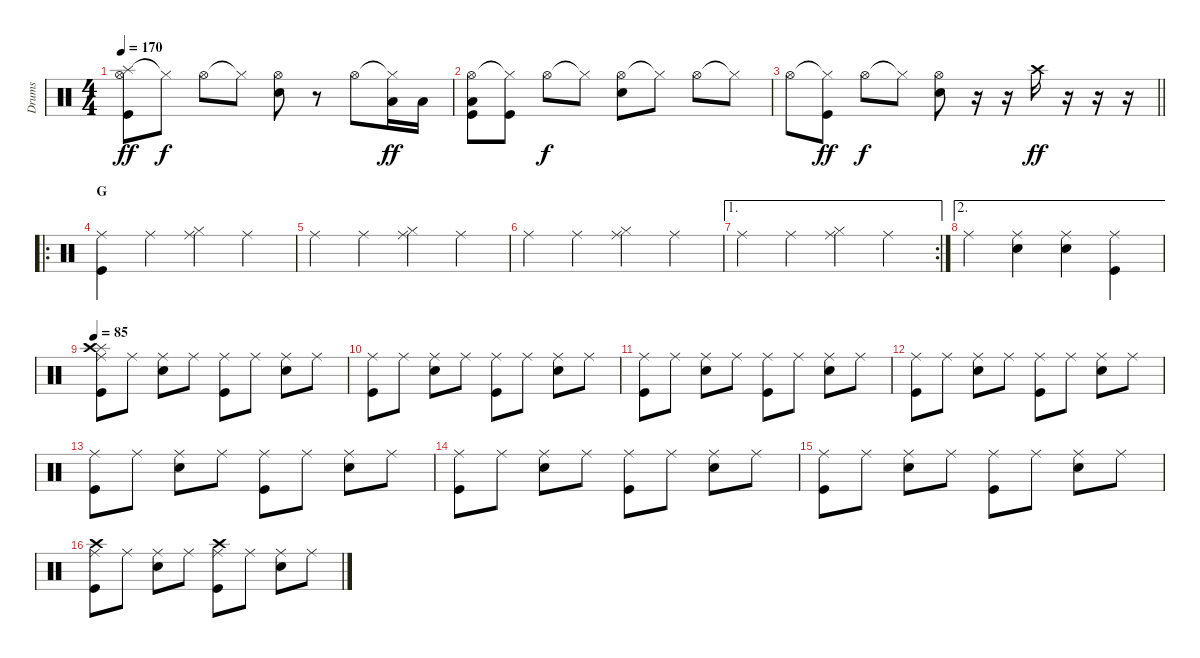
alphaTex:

\track ("Drums" "Drums") {instrument percussion}
\staff {score}
\articulation defaults
\ts (4 4)
\tempo 170
\clef neutral
\ks c
("Splash (hit)" "Hi-Hat (open)" "Kick (hit)").8{dy ff} "Hi-Hat (closed)"{t}.8{dy f} "Hi-Hat (open)".8 "Hi-Hat (closed)"{t}.8 ("Hi-Hat (open)" "Snare (hit) 2").8 r.8 "Hi-Hat (open)".8 ("Hi-Hat (closed)"{t} "Low Tom (hit)").16{dy ff} "Low Tom (hit)".16 |
("Hi-Hat (open)" "Low Tom (hit)" "Kick (hit)").8 ("Hi-Hat (closed)"{t} "Kick (hit)").8 "Hi-Hat (open)".8{dy f} "Hi-Hat (closed)"{t}.8 ("Hi-Hat (open)" "Snare (hit) 2").8 "Hi-Hat (closed)"{t}.8 "Hi-Hat (open)".8 "Hi-Hat (closed)"{t}.8 |
\barLineRight lightlight "Hi-Hat (open)".8
("Hi-Hat (closed)"{t} "Kick (hit)").8{dy ff} "Hi-Hat (open)".8{dy f} "Hi-Hat (closed)"{t}.8 ("Hi-Hat (open)" "Snare (hit) 2").8 r.16 r.16 "Crash high (hit)".16{dy ff} r.16 r.16 r.16 |
\ro
\section ("" "G")
("Ride (middle)" "Kick (hit)").4 "Ride (middle)".4 ("Hi-Hat (closed)" "Ride (middle)").4 "Ride (middle)".4 |
"Ride (middle)".4 "Ride (middle)".4 ("Hi-Hat (closed)" "Ride (middle)").4 "Ride (middle)".4 |
"Ride (middle)".4 "Ride (middle)".4 ("Hi-Hat (closed)" "Ride (middle)").4 "Ride (middle)".4 |
\ae 1
\rc 2 "Ride (middle)".4 "Ride (middle)".4
("Hi-Hat (closed)" "Ride (middle)").4 "Ride (middle)".4 |
\ae 2 "Ride (middle)".4
("Ride (middle)" "Snare (hit) 2").4 ("Ride (middle)" "Snare (hit) 2").4 ("Ride (middle)" "Kick (hit)").4 |
\tempo 85
("Splash (hit)" "Crash high (hit)" "Ride (middle)" "Kick (hit)").8 "Ride (middle)".8 ("Ride (middle)" "Snare (hit) 2").8 "Ride (middle)".8 ("Ride (middle)" "Kick (hit)").8 "Ride (middle)".8 ("Ride (middle)" "Snare (hit) 2").8 "Ride (middle)".8 |
("Ride (middle)" "Kick (hit)").8 "Ride (middle)".8 ("Ride (middle)" "Snare (hit) 2").8 "Ride (middle)".8 ("Ride (middle)" "Kick (hit)").8 "Ride (middle)".8 ("Ride (middle)" "Snare (hit) 2").8 "Ride (middle)".8 |
("Ride (middle)" "Kick (hit)").8 "Ride (middle)".8 ("Ride (middle)" "Snare (hit) 2").8 "Ride (middle)".8 ("Ride (middle)" "Kick (hit)").8 "Ride (middle)".8 ("Ride (middle)" "Snare (hit) 2").8 "Ride (middle)".8 |
("Ride (middle)" "Kick (hit)").8 "Ride (middle)".8 ("Ride (middle)" "Snare (hit) 2").8 "Ride (middle)".8 ("Ride (middle)" "Kick (hit)").8 "Ride (middle)".8 ("Ride (middle)" "Snare (hit) 2").8 "Ride (middle)".8 |
("Ride (middle)" "Kick (hit)").8 "Ride (middle)".8 ("Ride (middle)" "Snare (hit) 2").8 "Ride (middle)".8 ("Ride (middle)" "Kick (hit)").8 "Ride (middle)".8 ("Ride (middle)" "Snare (hit) 2").8 "Ride (middle)".8 |
("Ride (middle)" "Kick (hit)").8 "Ride (middle)".8 ("Ride (middle)" "Snare (hit) 2").8 "Ride (middle)".8 ("Ride (middle)" "Kick (hit)").8 "Ride (middle)".8 ("Ride (middle)" "Snare (hit) 2").8 "Ride (middle)".8 |
("Ride (middle)" "Kick (hit)").8 "Ride (middle)".8 ("Ride (middle)" "Snare (hit) 2").8 "Ride (middle)".8 ("Ride (middle)" "Kick (hit)").8 "Ride (middle)".8 ("Ride (middle)" "Snare (hit) 2").8 "Ride (middle)".8 |
("Crash high (hit)" "Ride (middle)" "Kick (hit)").8 "Ride (middle)".8 ("Ride (middle)" "Snare (hit) 2").8 "Ride (middle)".8 ("Crash high (hit)" "Ride (middle)" "Kick (hit)").8 "Ride (middle)".8 ("Ride (middle)" "Snare (hit) 2").8 "Ride (middle)".8
